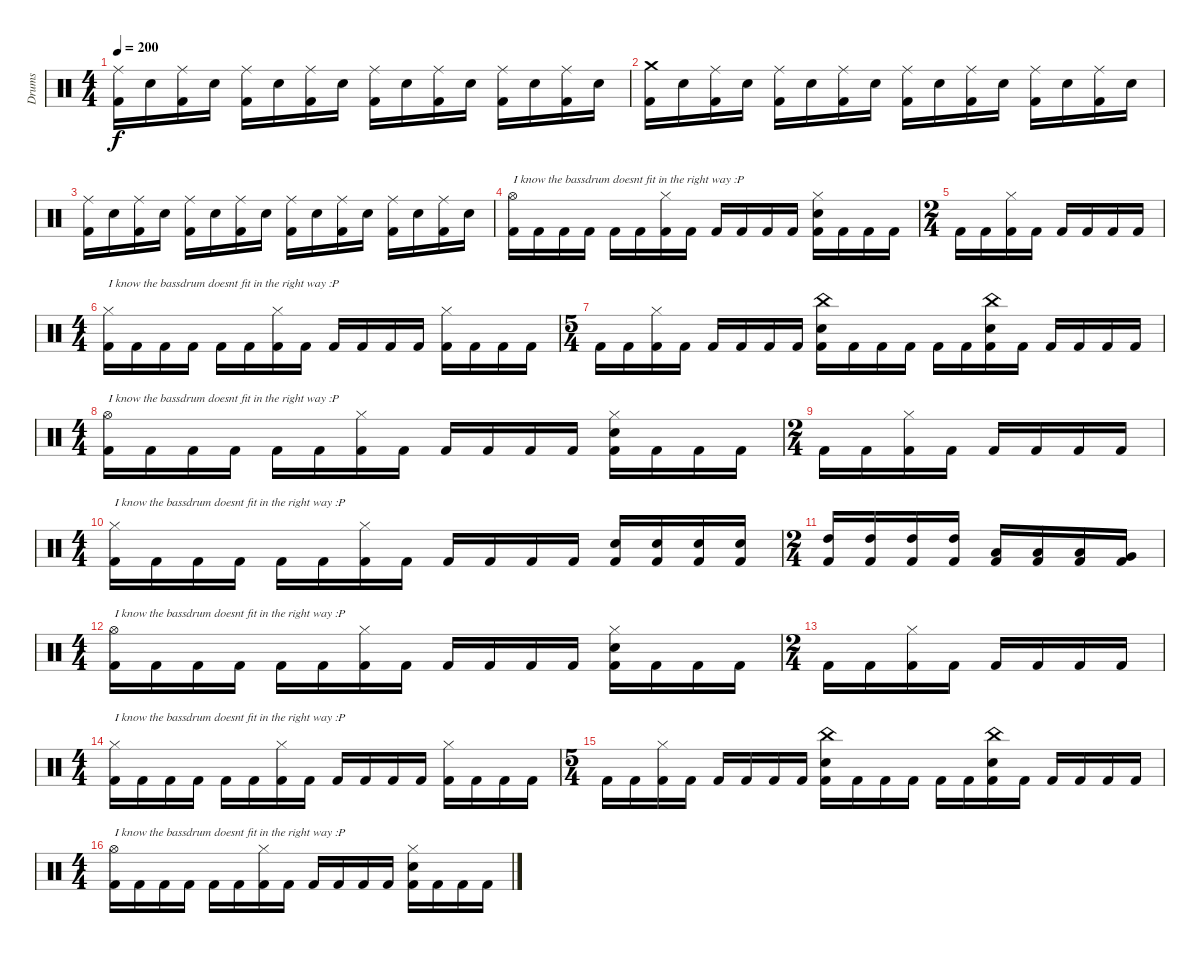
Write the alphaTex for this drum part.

\track ("Drums" "Drums") {instrument percussion}
\staff {score}
\articulation defaults
\ts (4 4)
\tempo 200
\clef neutral
\ks c
("Ride (middle)" "Kick (hit) 2").16{dy f} "Electric Snare (hit)".16 ("Ride (middle)" "Kick (hit) 2").16 "Electric Snare (hit)".16 ("Ride (middle)" "Kick (hit) 2").16 "Electric Snare (hit)".16 ("Ride (middle)" "Kick (hit) 2").16 "Electric Snare (hit)".16 ("Ride (middle)" "Kick (hit) 2").16 "Electric Snare (hit)".16 ("Ride (middle)" "Kick (hit) 2").16 "Electric Snare (hit)".16 ("Ride (middle)" "Kick (hit) 2").16 "Electric Snare (hit)".16 ("Ride (middle)" "Kick (hit) 2").16 "Electric Snare (hit)".16 |
("Crash medium (hit)" "Kick (hit) 2").16 "Electric Snare (hit)".16 ("Ride (middle)" "Kick (hit) 2").16 "Electric Snare (hit)".16 ("Ride (middle)" "Kick (hit) 2").16 "Electric Snare (hit)".16 ("Ride (middle)" "Kick (hit) 2").16 "Electric Snare (hit)".16 ("Ride (middle)" "Kick (hit) 2").16 "Electric Snare (hit)".16 ("Ride (middle)" "Kick (hit) 2").16 "Electric Snare (hit)".16 ("Ride (middle)" "Kick (hit) 2").16 "Electric Snare (hit)".16 ("Ride (middle)" "Kick (hit) 2").16 "Electric Snare (hit)".16 |
("Ride (middle)" "Kick (hit) 2").16 "Electric Snare (hit)".16 ("Ride (middle)" "Kick (hit) 2").16 "Electric Snare (hit)".16 ("Ride (middle)" "Kick (hit) 2").16 "Electric Snare (hit)".16 ("Ride (middle)" "Kick (hit) 2").16 "Electric Snare (hit)".16 ("Ride (middle)" "Kick (hit) 2").16 "Electric Snare (hit)".16 ("Ride (middle)" "Kick (hit) 2").16 "Electric Snare (hit)".16 ("Ride (middle)" "Kick (hit) 2").16 "Electric Snare (hit)".16 ("Ride (middle)" "Kick (hit) 2").16 "Electric Snare (hit)".16 |
\section ("" "")
("Hi-Hat (open)" "Kick (hit) 2").16{txt "I know the bassdrum doesnt fit in the right way :P"} "Kick (hit) 2".16 "Kick (hit) 2".16 "Kick (hit) 2".16 "Kick (hit) 2".16 "Kick (hit) 2".16 ("Hi-Hat (closed)" "Kick (hit) 2").16 "Kick (hit) 2".16 "Kick (hit) 2".16 "Kick (hit) 2".16 "Kick (hit) 2".16 "Kick (hit) 2".16 ("Hi-Hat (closed)" "Electric Snare (hit)" "Kick (hit) 2").16 "Kick (hit) 2".16 "Kick (hit) 2".16 "Kick (hit) 2".16 |
\ts (2 4)
"Kick (hit) 2".16 "Kick (hit) 2".16 ("Hi-Hat (closed)" "Kick (hit) 2").16 "Kick (hit) 2".16 "Kick (hit) 2".16 "Kick (hit) 2".16 "Kick (hit) 2".16 "Kick (hit) 2".16 |
\ts (4 4)
("Hi-Hat (closed)" "Kick (hit) 2").16{txt "I know the bassdrum doesnt fit in the right way :P"} "Kick (hit) 2".16 "Kick (hit) 2".16 "Kick (hit) 2".16 "Kick (hit) 2".16 "Kick (hit) 2".16 ("Hi-Hat (closed)" "Kick (hit) 2").16 "Kick (hit) 2".16 "Kick (hit) 2".16 "Kick (hit) 2".16 "Kick (hit) 2".16 "Kick (hit) 2".16 ("Hi-Hat (closed)" "Kick (hit) 2").16 "Kick (hit) 2".16 "Kick (hit) 2".16 "Kick (hit) 2".16 |
\ts (5 4)
"Kick (hit) 2".16 "Kick (hit) 2".16 ("Hi-Hat (closed)" "Kick (hit) 2").16 "Kick (hit) 2".16 "Kick (hit) 2".16 "Kick (hit) 2".16 "Kick (hit) 2".16 "Kick (hit) 2".16 ("China (hit)" "Electric Snare (hit)" "Kick (hit) 2").16 "Kick (hit) 2".16 "Kick (hit) 2".16 "Kick (hit) 2".16 "Kick (hit) 2".16 "Kick (hit) 2".16 ("China (hit)" "Electric Snare (hit)" "Kick (hit) 2").16 "Kick (hit) 2".16 "Kick (hit) 2".16 "Kick (hit) 2".16 "Kick (hit) 2".16 "Kick (hit) 2".16 |
\ts (4 4)
("Hi-Hat (open)" "Kick (hit) 2").16{txt "I know the bassdrum doesnt fit in the right way :P"} "Kick (hit) 2".16 "Kick (hit) 2".16 "Kick (hit) 2".16 "Kick (hit) 2".16 "Kick (hit) 2".16 ("Hi-Hat (closed)" "Kick (hit) 2").16 "Kick (hit) 2".16 "Kick (hit) 2".16 "Kick (hit) 2".16 "Kick (hit) 2".16 "Kick (hit) 2".16 ("Hi-Hat (closed)" "Electric Snare (hit)" "Kick (hit) 2").16 "Kick (hit) 2".16 "Kick (hit) 2".16 "Kick (hit) 2".16 |
\ts (2 4)
"Kick (hit) 2".16 "Kick (hit) 2".16 ("Hi-Hat (closed)" "Kick (hit) 2").16 "Kick (hit) 2".16 "Kick (hit) 2".16 "Kick (hit) 2".16 "Kick (hit) 2".16 "Kick (hit) 2".16 |
\ts (4 4)
("Hi-Hat (closed)" "Kick (hit) 2").16{txt "I know the bassdrum doesnt fit in the right way :P"} "Kick (hit) 2".16 "Kick (hit) 2".16 "Kick (hit) 2".16 "Kick (hit) 2".16 "Kick (hit) 2".16 ("Hi-Hat (closed)" "Kick (hit) 2").16 "Kick (hit) 2".16 "Kick (hit) 2".16 "Kick (hit) 2".16 "Kick (hit) 2".16 "Kick (hit) 2".16 ("Electric Snare (hit)" "Kick (hit) 2").16 ("Electric Snare (hit)" "Kick (hit) 2").16 ("Electric Snare (hit)" "Kick (hit) 2").16 ("Electric Snare (hit)" "Kick (hit) 2").16 |
\ts (2 4)
("High Tom (hit)" "Kick (hit) 2").16 ("High Tom (hit)" "Kick (hit) 2").16 ("High Tom (hit)" "Kick (hit) 2").16 ("High Tom (hit)" "Kick (hit) 2").16 ("Low Tom (hit)" "Kick (hit) 2").16 ("Low Tom (hit)" "Kick (hit) 2").16 ("Low Tom (hit)" "Kick (hit) 2").16 ("Very Low Tom (hit)" "Kick (hit) 2").16 |
\ts (4 4)
("Hi-Hat (open)" "Kick (hit) 2").16{txt "I know the bassdrum doesnt fit in the right way :P"} "Kick (hit) 2".16 "Kick (hit) 2".16 "Kick (hit) 2".16 "Kick (hit) 2".16 "Kick (hit) 2".16 ("Hi-Hat (closed)" "Kick (hit) 2").16 "Kick (hit) 2".16 "Kick (hit) 2".16 "Kick (hit) 2".16 "Kick (hit) 2".16 "Kick (hit) 2".16 ("Hi-Hat (closed)" "Electric Snare (hit)" "Kick (hit) 2").16 "Kick (hit) 2".16 "Kick (hit) 2".16 "Kick (hit) 2".16 |
\ts (2 4)
"Kick (hit) 2".16 "Kick (hit) 2".16 ("Hi-Hat (closed)" "Kick (hit) 2").16 "Kick (hit) 2".16 "Kick (hit) 2".16 "Kick (hit) 2".16 "Kick (hit) 2".16 "Kick (hit) 2".16 |
\ts (4 4)
("Hi-Hat (closed)" "Kick (hit) 2").16{txt "I know the bassdrum doesnt fit in the right way :P"} "Kick (hit) 2".16 "Kick (hit) 2".16 "Kick (hit) 2".16 "Kick (hit) 2".16 "Kick (hit) 2".16 ("Hi-Hat (closed)" "Kick (hit) 2").16 "Kick (hit) 2".16 "Kick (hit) 2".16 "Kick (hit) 2".16 "Kick (hit) 2".16 "Kick (hit) 2".16 ("Hi-Hat (closed)" "Kick (hit) 2").16 "Kick (hit) 2".16 "Kick (hit) 2".16 "Kick (hit) 2".16 |
\ts (5 4)
"Kick (hit) 2".16 "Kick (hit) 2".16 ("Hi-Hat (closed)" "Kick (hit) 2").16 "Kick (hit) 2".16 "Kick (hit) 2".16 "Kick (hit) 2".16 "Kick (hit) 2".16 "Kick (hit) 2".16 ("China (hit)" "Electric Snare (hit)" "Kick (hit) 2").16 "Kick (hit) 2".16 "Kick (hit) 2".16 "Kick (hit) 2".16 "Kick (hit) 2".16 "Kick (hit) 2".16 ("China (hit)" "Electric Snare (hit)" "Kick (hit) 2").16 "Kick (hit) 2".16 "Kick (hit) 2".16 "Kick (hit) 2".16 "Kick (hit) 2".16 "Kick (hit) 2".16 |
\ts (4 4)
("Hi-Hat (open)" "Kick (hit) 2").16{txt "I know the bassdrum doesnt fit in the right way :P"} "Kick (hit) 2".16 "Kick (hit) 2".16 "Kick (hit) 2".16 "Kick (hit) 2".16 "Kick (hit) 2".16 ("Hi-Hat (closed)" "Kick (hit) 2").16 "Kick (hit) 2".16 "Kick (hit) 2".16 "Kick (hit) 2".16 "Kick (hit) 2".16 "Kick (hit) 2".16 ("Hi-Hat (closed)" "Electric Snare (hit)" "Kick (hit) 2").16 "Kick (hit) 2".16 "Kick (hit) 2".16 "Kick (hit) 2".16
